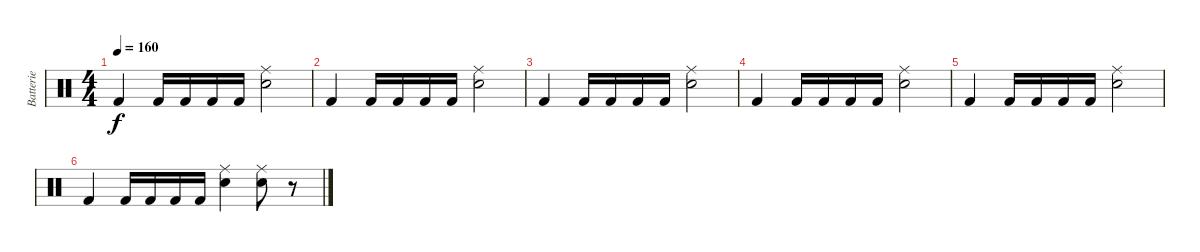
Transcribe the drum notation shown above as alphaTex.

\track ("Batterie" "Batterie") {instrument percussion}
\staff {score}
\articulation defaults
\ts (4 4)
\tempo 160
\clef neutral
\ks c "Kick (hit) 2".4{dy f} "Kick (hit) 2".16 "Kick (hit) 2".16 "Kick (hit) 2".16 "Kick (hit) 2".16
("Snare (hit) 2" "Ride (middle)").2 |
"Kick (hit) 2".4 "Kick (hit) 2".16 "Kick (hit) 2".16 "Kick (hit) 2".16 "Kick (hit) 2".16 ("Snare (hit) 2" "Ride (middle)").2 |
"Kick (hit) 2".4 "Kick (hit) 2".16 "Kick (hit) 2".16 "Kick (hit) 2".16 "Kick (hit) 2".16 ("Snare (hit) 2" "Ride (middle)").2 |
"Kick (hit) 2".4 "Kick (hit) 2".16 "Kick (hit) 2".16 "Kick (hit) 2".16 "Kick (hit) 2".16 ("Snare (hit) 2" "Ride (middle)").2 |
"Kick (hit) 2".4 "Kick (hit) 2".16 "Kick (hit) 2".16 "Kick (hit) 2".16 "Kick (hit) 2".16 ("Snare (hit) 2" "Ride (middle)").2 |
"Kick (hit) 2".4 "Kick (hit) 2".16 "Kick (hit) 2".16 "Kick (hit) 2".16 "Kick (hit) 2".16 ("Snare (hit) 2" "Ride (middle)").4 ("Snare (hit) 2" "Ride (middle)").8 r.8
